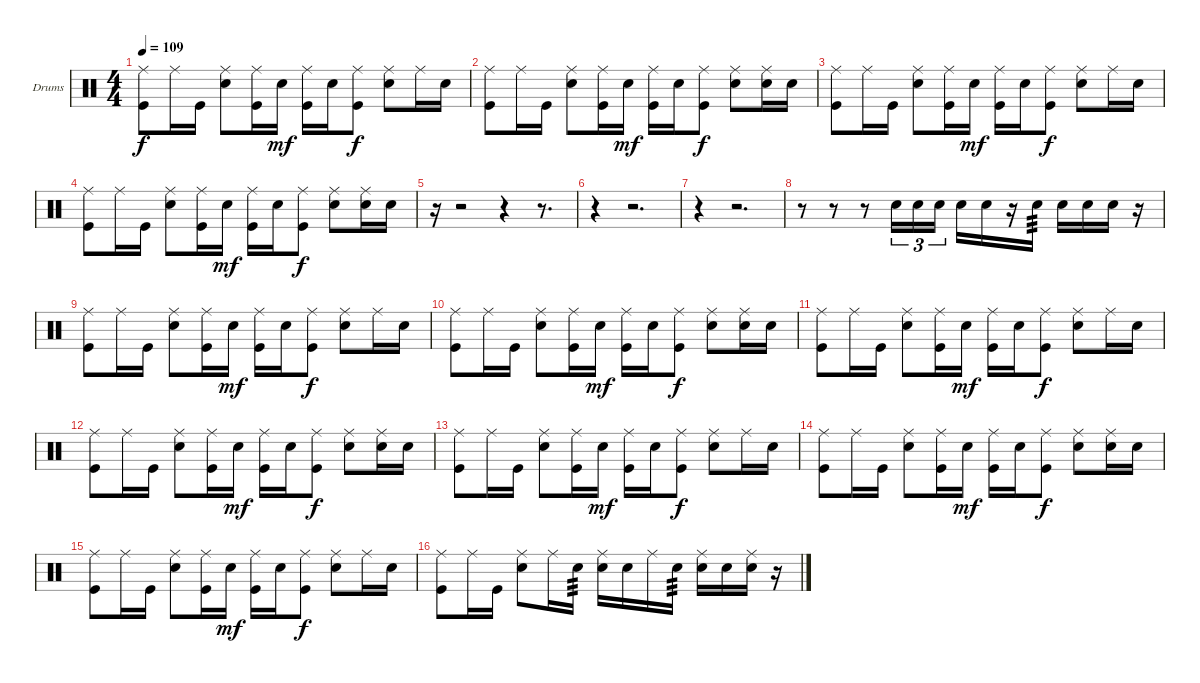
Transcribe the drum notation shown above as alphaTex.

\bracketExtendMode groupsimilarinstruments
\firstSystemTrackNameOrientation horizontal
\otherSystemsTrackNameOrientation horizontal
\track ("Drumkit" "Drums") {instrument percussion}
\staff {score}
\articulation defaults
\ts (4 4)
\tempo 109
\clef neutral
\ks c
("Kick (hit)" "Ride (middle)").8{dy f} "Ride (middle)".16 "Kick (hit)".16 ("Snare (hit) 2" "Ride (middle)").8 ("Kick (hit)" "Ride (middle)").16 "Snare (hit) 2".16{dy mf} ("Kick (hit)" "Ride (middle)").16 "Snare (hit) 2".16 ("Kick (hit)" "Ride (middle)").8{dy f} ("Snare (hit) 2" "Ride (middle)").8 "Ride (middle)".16 "Snare (hit) 2".16 |
("Kick (hit)" "Ride (middle)").8 "Ride (middle)".16 "Kick (hit)".16 ("Snare (hit) 2" "Ride (middle)").8 ("Kick (hit)" "Ride (middle)").16 "Snare (hit) 2".16{dy mf} ("Kick (hit)" "Ride (middle)").16 "Snare (hit) 2".16 ("Kick (hit)" "Ride (middle)").8{dy f} ("Snare (hit) 2" "Ride (middle)").8 ("Ride (middle)" "Snare (hit) 2").16 "Snare (hit) 2".16 |
("Kick (hit)" "Ride (middle)").8 "Ride (middle)".16 "Kick (hit)".16 ("Snare (hit) 2" "Ride (middle)").8 ("Kick (hit)" "Ride (middle)").16 "Snare (hit) 2".16{dy mf} ("Kick (hit)" "Ride (middle)").16 "Snare (hit) 2".16 ("Kick (hit)" "Ride (middle)").8{dy f} ("Snare (hit) 2" "Ride (middle)").8 "Ride (middle)".16 "Snare (hit) 2".16 |
("Kick (hit)" "Ride (middle)").8 "Ride (middle)".16 "Kick (hit)".16 ("Snare (hit) 2" "Ride (middle)").8 ("Kick (hit)" "Ride (middle)").16 "Snare (hit) 2".16{dy mf} ("Kick (hit)" "Ride (middle)").16 "Snare (hit) 2".16 ("Kick (hit)" "Ride (middle)").8{dy f} ("Snare (hit) 2" "Ride (middle)").8 ("Ride (middle)" "Snare (hit) 2").16 "Snare (hit) 2".16 |
r.16 r.2 r.4 r.8{d} |
r.4 r.2{d} |
r.4 r.2{d} |
r.8 r.8 r.8 "Snare (hit) 2".16{tu (3 2)} "Snare (hit) 2".16{tu (3 2)} "Snare (hit) 2".16{tu (3 2)} "Snare (hit) 2".16 "Snare (hit) 2".16 r.16 "Snare (hit) 2".16{tp 3} "Snare (hit) 2".16 "Snare (hit) 2".16 "Snare (hit) 2".16 r.16 |
("Kick (hit)" "Ride (middle)").8 "Ride (middle)".16 "Kick (hit)".16 ("Snare (hit) 2" "Ride (middle)").8 ("Kick (hit)" "Ride (middle)").16 "Snare (hit) 2".16{dy mf} ("Kick (hit)" "Ride (middle)").16 "Snare (hit) 2".16 ("Kick (hit)" "Ride (middle)").8{dy f} ("Snare (hit) 2" "Ride (middle)").8 "Ride (middle)".16 "Snare (hit) 2".16 |
("Kick (hit)" "Ride (middle)").8 "Ride (middle)".16 "Kick (hit)".16 ("Snare (hit) 2" "Ride (middle)").8 ("Kick (hit)" "Ride (middle)").16 "Snare (hit) 2".16{dy mf} ("Kick (hit)" "Ride (middle)").16 "Snare (hit) 2".16 ("Kick (hit)" "Ride (middle)").8{dy f} ("Snare (hit) 2" "Ride (middle)").8 ("Ride (middle)" "Snare (hit) 2").16 "Snare (hit) 2".16 |
("Kick (hit)" "Ride (middle)").8 "Ride (middle)".16 "Kick (hit)".16 ("Snare (hit) 2" "Ride (middle)").8 ("Kick (hit)" "Ride (middle)").16 "Snare (hit) 2".16{dy mf} ("Kick (hit)" "Ride (middle)").16 "Snare (hit) 2".16 ("Kick (hit)" "Ride (middle)").8{dy f} ("Snare (hit) 2" "Ride (middle)").8 "Ride (middle)".16 "Snare (hit) 2".16 |
("Kick (hit)" "Ride (middle)").8 "Ride (middle)".16 "Kick (hit)".16 ("Snare (hit) 2" "Ride (middle)").8 ("Kick (hit)" "Ride (middle)").16 "Snare (hit) 2".16{dy mf} ("Kick (hit)" "Ride (middle)").16 "Snare (hit) 2".16 ("Kick (hit)" "Ride (middle)").8{dy f} ("Snare (hit) 2" "Ride (middle)").8 ("Ride (middle)" "Snare (hit) 2").16 "Snare (hit) 2".16 |
("Kick (hit)" "Ride (middle)").8 "Ride (middle)".16 "Kick (hit)".16 ("Snare (hit) 2" "Ride (middle)").8 ("Kick (hit)" "Ride (middle)").16 "Snare (hit) 2".16{dy mf} ("Kick (hit)" "Ride (middle)").16 "Snare (hit) 2".16 ("Kick (hit)" "Ride (middle)").8{dy f} ("Snare (hit) 2" "Ride (middle)").8 "Ride (middle)".16 "Snare (hit) 2".16 |
("Kick (hit)" "Ride (middle)").8 "Ride (middle)".16 "Kick (hit)".16 ("Snare (hit) 2" "Ride (middle)").8 ("Kick (hit)" "Ride (middle)").16 "Snare (hit) 2".16{dy mf} ("Kick (hit)" "Ride (middle)").16 "Snare (hit) 2".16 ("Kick (hit)" "Ride (middle)").8{dy f} ("Snare (hit) 2" "Ride (middle)").8 ("Ride (middle)" "Snare (hit) 2").16 "Snare (hit) 2".16 |
("Kick (hit)" "Ride (middle)").8 "Ride (middle)".16 "Kick (hit)".16 ("Snare (hit) 2" "Ride (middle)").8 ("Kick (hit)" "Ride (middle)").16 "Snare (hit) 2".16{dy mf} ("Kick (hit)" "Ride (middle)").16 "Snare (hit) 2".16 ("Kick (hit)" "Ride (middle)").8{dy f} ("Snare (hit) 2" "Ride (middle)").8 "Ride (middle)".16 "Snare (hit) 2".16 |
("Kick (hit)" "Ride (middle)").8 "Ride (middle)".16 "Kick (hit)".16 ("Snare (hit) 2" "Ride (middle)").8 "Ride (middle)".16 "Snare (hit) 2".16{tp 3} ("Snare (hit) 2" "Ride (middle)").16 "Snare (hit) 2".16 "Ride (middle)".16 "Snare (hit) 2".16{tp 3} ("Snare (hit) 2" "Ride (middle)").16 "Snare (hit) 2".16 ("Snare (hit) 2" "Ride (middle)").16 r.16
